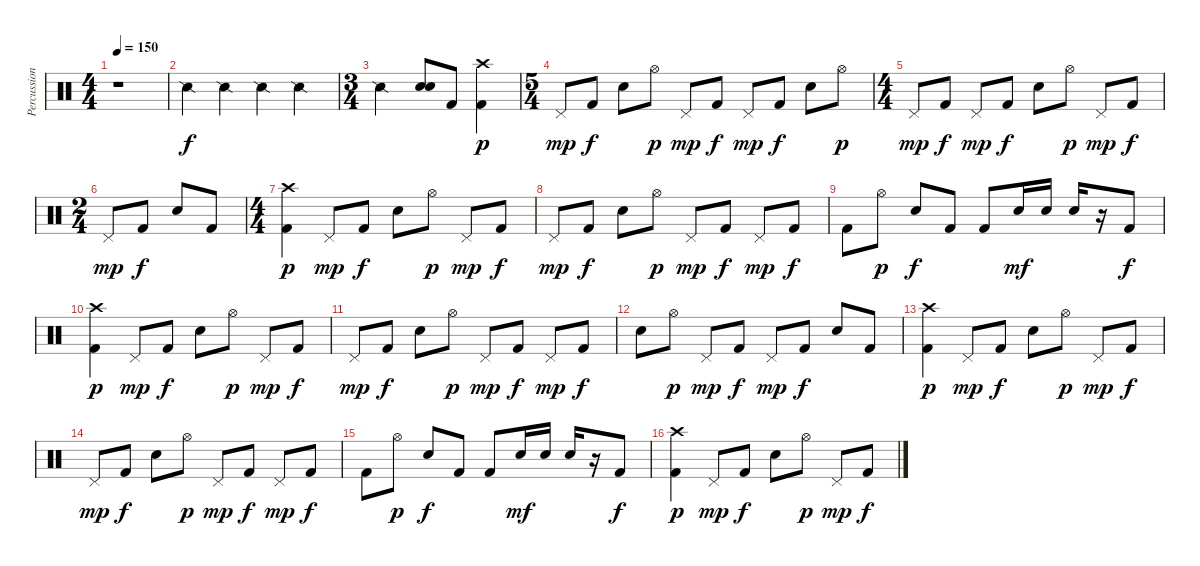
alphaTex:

\track ("Percussion" "Percussion") {instrument percussion}
\staff {score}
\articulation defaults
\ts (4 4)
\tempo 150
\clef neutral
\ks c
r.1{dy f} |
"Snare (side stick) 2".4 "Snare (side stick) 2".4 "Snare (side stick) 2".4 "Snare (side stick) 2".4 |
\ts (3 4)
"Snare (side stick) 2".4 ("Electric Snare (hit)" "Electric Snare (hit)").8{bd 120} "Kick (hit) 2".8 ("Crash high (hit)" "Kick (hit) 2").4{dy p} |
\ts (5 4)
"Pedal Hi-Hat (hit)".8{dy mp} "Kick (hit) 2".8{dy f} "Electric Snare (hit)".8 "Hi-Hat (open)".8{dy p} "Pedal Hi-Hat (hit)".8{dy mp} "Kick (hit) 2".8{dy f} "Pedal Hi-Hat (hit)".8{dy mp} "Kick (hit) 2".8{dy f} "Electric Snare (hit)".8 "Hi-Hat (open)".8{dy p} |
\ts (4 4)
"Pedal Hi-Hat (hit)".8{dy mp} "Kick (hit) 2".8{dy f} "Pedal Hi-Hat (hit)".8{dy mp} "Kick (hit) 2".8{dy f} "Electric Snare (hit)".8 "Hi-Hat (open)".8{dy p} "Pedal Hi-Hat (hit)".8{dy mp} "Kick (hit) 2".8{dy f} |
\ts (2 4)
"Pedal Hi-Hat (hit)".8{dy mp} "Kick (hit) 2".8{dy f} "Electric Snare (hit)".8 "Kick (hit) 2".8 |
\ts (4 4)
("Crash high (hit)" "Kick (hit) 2").4{dy p} "Pedal Hi-Hat (hit)".8{dy mp} "Kick (hit) 2".8{dy f} "Electric Snare (hit)".8 "Hi-Hat (open)".8{dy p} "Pedal Hi-Hat (hit)".8{dy mp} "Kick (hit) 2".8{dy f} |
"Pedal Hi-Hat (hit)".8{dy mp} "Kick (hit) 2".8{dy f} "Electric Snare (hit)".8 "Hi-Hat (open)".8{dy p} "Pedal Hi-Hat (hit)".8{dy mp} "Kick (hit) 2".8{dy f} "Pedal Hi-Hat (hit)".8{dy mp} "Kick (hit) 2".8{dy f} |
"Kick (hit) 2".8 "Hi-Hat (open)".8{dy p} "Electric Snare (hit)".8{dy f} "Kick (hit) 2".8 "Kick (hit) 2".8 "Electric Snare (hit)".16{dy mf} "Electric Snare (hit)".16 "Electric Snare (hit)".16 r.16 "Kick (hit) 2".8{dy f} |
("Crash high (hit)" "Kick (hit) 2").4{dy p} "Pedal Hi-Hat (hit)".8{dy mp} "Kick (hit) 2".8{dy f} "Electric Snare (hit)".8 "Hi-Hat (open)".8{dy p} "Pedal Hi-Hat (hit)".8{dy mp} "Kick (hit) 2".8{dy f} |
"Pedal Hi-Hat (hit)".8{dy mp} "Kick (hit) 2".8{dy f} "Electric Snare (hit)".8 "Hi-Hat (open)".8{dy p} "Pedal Hi-Hat (hit)".8{dy mp} "Kick (hit) 2".8{dy f} "Pedal Hi-Hat (hit)".8{dy mp} "Kick (hit) 2".8{dy f} |
"Electric Snare (hit)".8 "Hi-Hat (open)".8{dy p} "Pedal Hi-Hat (hit)".8{dy mp} "Kick (hit) 2".8{dy f} "Pedal Hi-Hat (hit)".8{dy mp} "Kick (hit) 2".8{dy f} "Electric Snare (hit)".8 "Kick (hit) 2".8 |
("Crash high (hit)" "Kick (hit) 2").4{dy p} "Pedal Hi-Hat (hit)".8{dy mp} "Kick (hit) 2".8{dy f} "Electric Snare (hit)".8 "Hi-Hat (open)".8{dy p} "Pedal Hi-Hat (hit)".8{dy mp} "Kick (hit) 2".8{dy f} |
"Pedal Hi-Hat (hit)".8{dy mp} "Kick (hit) 2".8{dy f} "Electric Snare (hit)".8 "Hi-Hat (open)".8{dy p} "Pedal Hi-Hat (hit)".8{dy mp} "Kick (hit) 2".8{dy f} "Pedal Hi-Hat (hit)".8{dy mp} "Kick (hit) 2".8{dy f} |
"Kick (hit) 2".8 "Hi-Hat (open)".8{dy p} "Electric Snare (hit)".8{dy f} "Kick (hit) 2".8 "Kick (hit) 2".8 "Electric Snare (hit)".16{dy mf} "Electric Snare (hit)".16 "Electric Snare (hit)".16 r.16 "Kick (hit) 2".8{dy f} |
("Crash high (hit)" "Kick (hit) 2").4{dy p} "Pedal Hi-Hat (hit)".8{dy mp} "Kick (hit) 2".8{dy f} "Electric Snare (hit)".8 "Hi-Hat (open)".8{dy p} "Pedal Hi-Hat (hit)".8{dy mp} "Kick (hit) 2".8{dy f}
